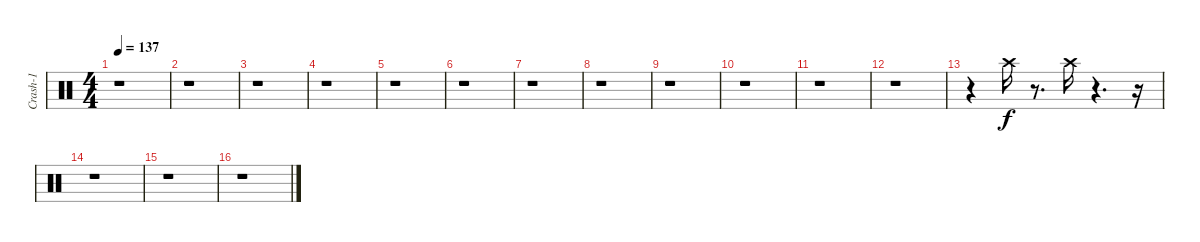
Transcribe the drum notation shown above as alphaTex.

\track ("Crash-1" "Crash-1") {instrument percussion}
\staff {score}
\articulation defaults
\ts (4 4)
\tempo 137
\clef neutral
\ks c
r.1{dy f} |
r.1 |
r.1 |
r.1 |
r.1 |
r.1 |
r.1 |
r.1 |
r.1 |
r.1 |
r.1 |
r.1 |
r.4 "Crash high (hit)".16 r.8{d} "Crash high (hit)".16 r.4{d} r.16 |
r.1 |
r.1 |
r.1
